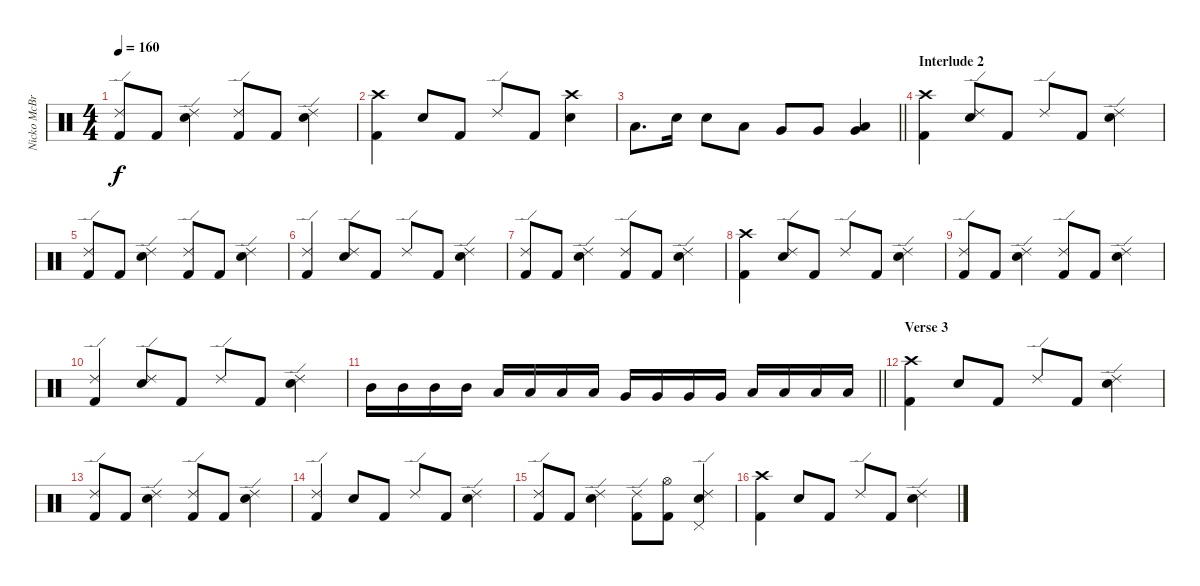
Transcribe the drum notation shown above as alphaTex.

\track ("Nicko McBrain" "Nicko McBr") {instrument percussion}
\staff {score}
\articulation defaults
\ts (4 4)
\tempo 160
\clef neutral
\ks c
("Ride (edge) 2" "Kick (hit) 2").8{dy f} "Kick (hit) 2".8 ("Ride (edge) 2" "Electric Snare (hit)").4 ("Ride (edge) 2" "Kick (hit) 2").8 "Kick (hit) 2".8 ("Ride (edge) 2" "Electric Snare (hit)").4 |
("Crash high (hit)" "Kick (hit) 2").4 "Electric Snare (hit)".8 "Kick (hit) 2".8 "Ride (edge) 2".8 "Kick (hit) 2".8 ("Crash high (hit)" "Electric Snare (hit)").4 |
\barLineRight lightlight "Low Tom (hit)".8{d} "Electric Snare (hit)".16 "Electric Snare (hit)".8 "Low Tom (hit)".8 "Very Low Tom (hit)".8 "Very Low Tom (hit)".8
("Very Low Tom (hit)" "Low Floor Tom (hit)").4 |
\section ("" "Interlude 2")
("Crash high (hit)" "Kick (hit) 2").4 ("Ride (edge) 2" "Electric Snare (hit)").8 "Kick (hit) 2".8 "Ride (edge) 2".8 "Kick (hit) 2".8 ("Ride (edge) 2" "Electric Snare (hit)").4 |
("Ride (edge) 2" "Kick (hit) 2").8 "Kick (hit) 2".8 ("Ride (edge) 2" "Electric Snare (hit)").4 ("Ride (edge) 2" "Kick (hit) 2").8 "Kick (hit) 2".8 ("Ride (edge) 2" "Electric Snare (hit)").4 |
("Ride (edge) 2" "Kick (hit) 2").4 ("Ride (edge) 2" "Electric Snare (hit)").8 "Kick (hit) 2".8 "Ride (edge) 2".8 "Kick (hit) 2".8 ("Ride (edge) 2" "Electric Snare (hit)").4 |
("Ride (edge) 2" "Kick (hit) 2").8 "Kick (hit) 2".8 ("Ride (edge) 2" "Electric Snare (hit)").4 ("Ride (edge) 2" "Kick (hit) 2").8 "Kick (hit) 2".8 ("Ride (edge) 2" "Electric Snare (hit)").4 |
("Crash high (hit)" "Kick (hit) 2").4 ("Ride (edge) 2" "Electric Snare (hit)").8 "Kick (hit) 2".8 "Ride (edge) 2".8 "Kick (hit) 2".8 ("Ride (edge) 2" "Electric Snare (hit)").4 |
("Ride (edge) 2" "Kick (hit) 2").8 "Kick (hit) 2".8 ("Ride (edge) 2" "Electric Snare (hit)").4 ("Ride (edge) 2" "Kick (hit) 2").8 "Kick (hit) 2".8 ("Ride (edge) 2" "Electric Snare (hit)").4 |
("Ride (edge) 2" "Kick (hit) 2").4 ("Ride (edge) 2" "Electric Snare (hit)").8 "Kick (hit) 2".8 "Ride (edge) 2".8 "Kick (hit) 2".8 ("Ride (edge) 2" "Electric Snare (hit)").4 |
\barLineRight lightlight "Mid Tom (hit)".16 "Mid Tom (hit)".16 "Mid Tom (hit)".16 "Mid Tom (hit)".16 "Low Tom (hit)".16 "Low Tom (hit)".16 "Low Tom (hit)".16 "Low Tom (hit)".16 "Very Low Tom (hit)".16 "Very Low Tom (hit)".16 "Very Low Tom (hit)".16 "Very Low Tom (hit)".16 "Low Floor Tom (hit)".16 "Low Floor Tom (hit)".16 "Low Floor Tom (hit)".16 "Low Floor Tom (hit)".16
|
\section ("" "Verse 3")
("Crash high (hit)" "Kick (hit) 2").4 "Electric Snare (hit)".8 "Kick (hit) 2".8 "Ride (edge) 2".8 "Kick (hit) 2".8 ("Ride (edge) 2" "Electric Snare (hit)").4 |
("Ride (edge) 2" "Kick (hit) 2").8 "Kick (hit) 2".8 ("Ride (edge) 2" "Electric Snare (hit)").4 ("Ride (edge) 2" "Kick (hit) 2").8 "Kick (hit) 2".8 ("Ride (edge) 2" "Electric Snare (hit)").4 |
("Ride (edge) 2" "Kick (hit) 2").4 "Electric Snare (hit)".8 "Kick (hit) 2".8 "Ride (edge) 2".8 "Kick (hit) 2".8 ("Ride (edge) 2" "Electric Snare (hit)").4 |
("Ride (edge) 2" "Kick (hit) 2").8 "Kick (hit) 2".8 ("Ride (edge) 2" "Electric Snare (hit)").4 ("Ride (edge) 2" "Kick (hit) 2").8 ("Hi-Hat (open)" "Kick (hit) 2").8 ("Ride (edge) 2" "Pedal Hi-Hat (hit)" "Electric Snare (hit)").4 |
("Crash high (hit)" "Kick (hit) 2").4 "Electric Snare (hit)".8 "Kick (hit) 2".8 "Ride (edge) 2".8 "Kick (hit) 2".8 ("Ride (edge) 2" "Electric Snare (hit)").4
